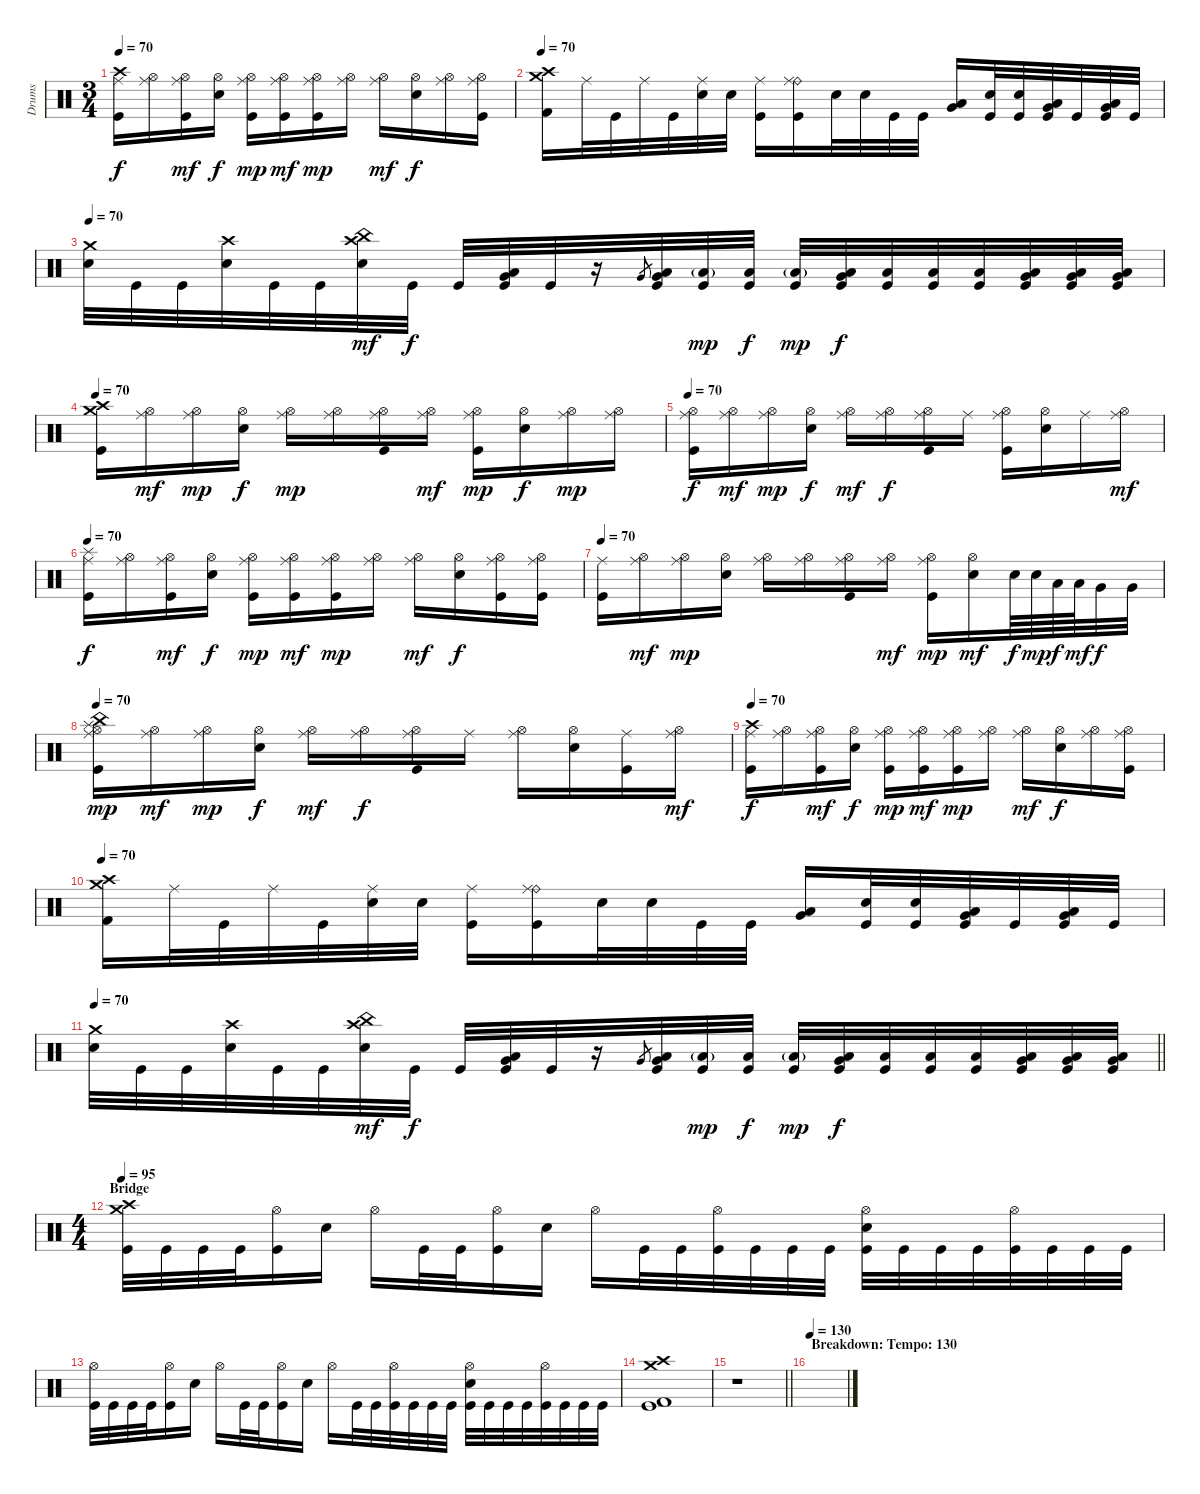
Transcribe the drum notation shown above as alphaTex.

\track ("Drums" "Drums") {instrument percussion}
\staff {score}
\articulation defaults
\ts (3 4)
\tempo 70
\clef neutral
\ks c
("Crash high (hit)" "Ride (middle)" "Kick (hit)").16{dy f} ("Ride (middle)" "Hi-Hat (open)").16 ("Ride (middle)" "Hi-Hat (open)" "Kick (hit)").16{dy mf} ("Hi-Hat (open)" "Electric Snare (hit)").16{dy f} ("Ride (middle)" "Hi-Hat (open)" "Kick (hit)").16{dy mp} ("Ride (middle)" "Hi-Hat (open)" "Kick (hit)").16{dy mf} ("Ride (middle)" "Hi-Hat (open)" "Kick (hit)").16{dy mp} ("Ride (middle)" "Hi-Hat (open)").16 ("Ride (middle)" "Hi-Hat (open)").16{dy mf} ("Hi-Hat (open)" "Electric Snare (hit)").16{dy f} ("Ride (middle)" "Hi-Hat (open)").16 ("Ride (middle)" "Hi-Hat (open)" "Kick (hit)").16 |
\tempo 70
("Crash medium (hit)" "Crash high (hit)" "Kick (hit) 2").16 "Ride (middle)".32 "Kick (hit)".32 "Ride (middle)".32 "Kick (hit)".32 ("Ride (middle)" "Electric Snare (hit)").32 "Electric Snare (hit)".32 ("Ride (middle)" "Kick (hit)").16 ("Ride (bell)" "Ride (middle)" "Kick (hit)").16 "Electric Snare (hit)".32 "Electric Snare (hit)".32 "Kick (hit)".32 "Kick (hit)".32 ("Very Low Tom (hit)" "Low Floor Tom (hit)").16 ("Electric Snare (hit)" "Kick (hit)").32 ("Electric Snare (hit)" "Kick (hit)").32 ("Very Low Tom (hit)" "Low Floor Tom (hit)" "Kick (hit)").32 "Kick (hit)".32 ("Very Low Tom (hit)" "Low Floor Tom (hit)" "Kick (hit)").32 "Kick (hit)".32 |
\tempo 70
("Crash medium (hit)" "Electric Snare (hit)").32 "Kick (hit)".32 "Kick (hit)".32 ("Crash high (hit)" "Electric Snare (hit)").32 "Kick (hit)".32 "Kick (hit)".32 ("Crash high (hit)" "China (hit)" "Electric Snare (hit)").32{dy mf} "Kick (hit)".32{dy f} "Kick (hit)".32 ("Very Low Tom (hit)" "Low Floor Tom (hit)" "Kick (hit)").32 "Kick (hit)".32 r.16 "Very Low Tom (hit)".8{gr} ("Very Low Tom (hit)" "Low Floor Tom (hit)" "Kick (hit)").32 ("Low Floor Tom (hit)"{g} "Kick (hit)").32{dy mp} ("Low Floor Tom (hit)" "Kick (hit)").32{dy f} ("Low Floor Tom (hit)"{g} "Kick (hit)").32{dy mp} ("Very Low Tom (hit)" "Low Floor Tom (hit)" "Kick (hit)").32{dy f} ("Low Floor Tom (hit)" "Kick (hit)").32 ("Low Floor Tom (hit)" "Kick (hit)").32 ("Low Floor Tom (hit)" "Kick (hit)").32 ("Very Low Tom (hit)" "Low Floor Tom (hit)" "Kick (hit)").32 ("Very Low Tom (hit)" "Low Floor Tom (hit)" "Kick (hit)").32 ("Very Low Tom (hit)" "Low Floor Tom (hit)" "Kick (hit)").32 |
\tempo 70
("Crash medium (hit)" "Crash high (hit)" "Kick (hit)").16 ("Ride (middle)" "Hi-Hat (open)").16{dy mf} ("Ride (middle)" "Hi-Hat (open)").16{dy mp} ("Hi-Hat (open)" "Electric Snare (hit)").16{dy f} ("Ride (middle)" "Hi-Hat (open)").16{dy mp} ("Ride (middle)" "Hi-Hat (open)").16 ("Ride (middle)" "Hi-Hat (open)" "Kick (hit)").16 ("Ride (middle)" "Hi-Hat (open)").16{dy mf} ("Ride (middle)" "Hi-Hat (open)" "Kick (hit)").16{dy mp} ("Hi-Hat (open)" "Electric Snare (hit)").16{dy f} ("Ride (middle)" "Hi-Hat (open)").16{dy mp} ("Ride (middle)" "Hi-Hat (open)").16 |
\tempo 70
("Ride (middle)" "Hi-Hat (open)" "Kick (hit)").16{dy f} ("Ride (middle)" "Hi-Hat (open)").16{dy mf} ("Ride (middle)" "Hi-Hat (open)").16{dy mp} ("Hi-Hat (open)" "Electric Snare (hit)").16{dy f} ("Ride (middle)" "Hi-Hat (open)").16{dy mf} ("Ride (middle)" "Hi-Hat (open)").16{dy f} ("Ride (middle)" "Hi-Hat (open)" "Kick (hit)").16 "Ride (middle)".16 ("Ride (middle)" "Hi-Hat (open)" "Kick (hit)").16 ("Hi-Hat (open)" "Electric Snare (hit)").16 "Ride (middle)".16 ("Ride (middle)" "Hi-Hat (open)").16{dy mf} |
\tempo 70
("Splash (hit)" "Ride (middle)" "Kick (hit)").16{dy f} ("Ride (middle)" "Hi-Hat (open)").16 ("Ride (middle)" "Hi-Hat (open)" "Kick (hit)").16{dy mf} ("Hi-Hat (open)" "Electric Snare (hit)").16{dy f} ("Ride (middle)" "Hi-Hat (open)" "Kick (hit)").16{dy mp} ("Ride (middle)" "Hi-Hat (open)" "Kick (hit)").16{dy mf} ("Ride (middle)" "Hi-Hat (open)" "Kick (hit)").16{dy mp} ("Ride (middle)" "Hi-Hat (open)").16 ("Ride (middle)" "Hi-Hat (open)").16{dy mf} ("Hi-Hat (open)" "Electric Snare (hit)").16{dy f} ("Ride (middle)" "Hi-Hat (open)" "Kick (hit)").16 ("Ride (middle)" "Hi-Hat (open)" "Kick (hit)").16 |
\tempo 70
("Ride (middle)" "Kick (hit)").16 ("Ride (middle)" "Hi-Hat (open)").16{dy mf} ("Ride (middle)" "Hi-Hat (open)").16{dy mp} ("Hi-Hat (open)" "Electric Snare (hit)").16 ("Ride (middle)" "Hi-Hat (open)").16 ("Ride (middle)" "Hi-Hat (open)").16 ("Ride (middle)" "Hi-Hat (open)" "Kick (hit)").16 ("Ride (middle)" "Hi-Hat (open)").16{dy mf} ("Ride (middle)" "Hi-Hat (open)" "Kick (hit)").16{dy mp} ("Hi-Hat (open)" "Electric Snare (hit)").16{dy mf} "Electric Snare (hit)".64{dy f} "Electric Snare (hit)".64{dy mp} "Low Tom (hit)".64{dy f} "Low Tom (hit)".64{dy mf} "Very Low Tom (hit)".32{dy f} "Very Low Tom (hit)".32 |
\tempo 70
("Splash (hit)" "China (hit)" "Ride (middle)" "Hi-Hat (open)" "Kick (hit)").16{dy mp} ("Ride (middle)" "Hi-Hat (open)").16{dy mf} ("Ride (middle)" "Hi-Hat (open)").16{dy mp} ("Hi-Hat (open)" "Electric Snare (hit)").16{dy f} ("Ride (middle)" "Hi-Hat (open)").16{dy mf} ("Ride (middle)" "Hi-Hat (open)").16{dy f} ("Ride (middle)" "Hi-Hat (open)" "Kick (hit)").16 "Ride (middle)".16 ("Ride (middle)" "Hi-Hat (open)").16 ("Hi-Hat (open)" "Electric Snare (hit)").16 ("Ride (middle)" "Kick (hit)").16 ("Ride (middle)" "Hi-Hat (open)").16{dy mf} |
\tempo 70
("Crash high (hit)" "Ride (middle)" "Kick (hit)").16{dy f} ("Ride (middle)" "Hi-Hat (open)").16 ("Ride (middle)" "Hi-Hat (open)" "Kick (hit)").16{dy mf} ("Hi-Hat (open)" "Electric Snare (hit)").16{dy f} ("Ride (middle)" "Hi-Hat (open)" "Kick (hit)").16{dy mp} ("Ride (middle)" "Hi-Hat (open)" "Kick (hit)").16{dy mf} ("Ride (middle)" "Hi-Hat (open)" "Kick (hit)").16{dy mp} ("Ride (middle)" "Hi-Hat (open)").16 ("Ride (middle)" "Hi-Hat (open)").16{dy mf} ("Hi-Hat (open)" "Electric Snare (hit)").16{dy f} ("Ride (middle)" "Hi-Hat (open)").16 ("Ride (middle)" "Hi-Hat (open)" "Kick (hit)").16 |
\tempo 70
("Crash medium (hit)" "Crash high (hit)" "Kick (hit) 2").16 "Ride (middle)".32 "Kick (hit)".32 "Ride (middle)".32 "Kick (hit)".32 ("Ride (middle)" "Electric Snare (hit)").32 "Electric Snare (hit)".32 ("Ride (middle)" "Kick (hit)").16 ("Ride (bell)" "Ride (middle)" "Kick (hit)").16 "Electric Snare (hit)".32 "Electric Snare (hit)".32 "Kick (hit)".32 "Kick (hit)".32 ("Very Low Tom (hit)" "Low Floor Tom (hit)").16 ("Electric Snare (hit)" "Kick (hit)").32 ("Electric Snare (hit)" "Kick (hit)").32 ("Very Low Tom (hit)" "Low Floor Tom (hit)" "Kick (hit)").32 "Kick (hit)".32 ("Very Low Tom (hit)" "Low Floor Tom (hit)" "Kick (hit)").32 "Kick (hit)".32 |
\tempo 70
\barLineRight lightlight
("Crash medium (hit)" "Electric Snare (hit)").32 "Kick (hit)".32 "Kick (hit)".32 ("Crash high (hit)" "Electric Snare (hit)").32 "Kick (hit)".32 "Kick (hit)".32 ("Crash high (hit)" "China (hit)" "Electric Snare (hit)").32{dy mf} "Kick (hit)".32{dy f} "Kick (hit)".32 ("Very Low Tom (hit)" "Low Floor Tom (hit)" "Kick (hit)").32 "Kick (hit)".32 r.16 "Very Low Tom (hit)".8{gr} ("Very Low Tom (hit)" "Low Floor Tom (hit)" "Kick (hit)").32 ("Low Floor Tom (hit)"{g} "Kick (hit)").32{dy mp} ("Low Floor Tom (hit)" "Kick (hit)").32{dy f} ("Low Floor Tom (hit)"{g} "Kick (hit)").32{dy mp} ("Very Low Tom (hit)" "Low Floor Tom (hit)" "Kick (hit)").32{dy f} ("Low Floor Tom (hit)" "Kick (hit)").32 ("Low Floor Tom (hit)" "Kick (hit)").32 ("Low Floor Tom (hit)" "Kick (hit)").32 ("Very Low Tom (hit)" "Low Floor Tom (hit)" "Kick (hit)").32 ("Very Low Tom (hit)" "Low Floor Tom (hit)" "Kick (hit)").32 ("Very Low Tom (hit)" "Low Floor Tom (hit)" "Kick (hit)").32 |
\ts (4 4)
\section ("" "Bridge")
\tempo 95
("Crash medium (hit)" "Crash high (hit)" "Kick (hit)").32 "Kick (hit)".32 "Kick (hit)".32 "Kick (hit)".32 ("Hi-Hat (open)" "Kick (hit)").16 "Electric Snare (hit)".16 "Hi-Hat (open)".16 "Kick (hit)".32 "Kick (hit)".32 ("Hi-Hat (open)" "Kick (hit)").16 "Electric Snare (hit)".16 "Hi-Hat (open)".16 "Kick (hit)".32 "Kick (hit)".32 ("Hi-Hat (open)" "Kick (hit)").32 "Kick (hit)".32 "Kick (hit)".32 "Kick (hit)".32 ("Hi-Hat (open)" "Electric Snare (hit)" "Kick (hit)").32 "Kick (hit)".32 "Kick (hit)".32 "Kick (hit)".32 ("Hi-Hat (open)" "Kick (hit)").32 "Kick (hit)".32 "Kick (hit)".32 "Kick (hit)".32 |
("Hi-Hat (open)" "Kick (hit)").32 "Kick (hit)".32 "Kick (hit)".32 "Kick (hit)".32 ("Hi-Hat (open)" "Kick (hit)").16 "Electric Snare (hit)".16 "Hi-Hat (open)".16 "Kick (hit)".32 "Kick (hit)".32 ("Hi-Hat (open)" "Kick (hit)").16 "Electric Snare (hit)".16 "Hi-Hat (open)".16 "Kick (hit)".32 "Kick (hit)".32 ("Hi-Hat (open)" "Kick (hit)").32 "Kick (hit)".32 "Kick (hit)".32 "Kick (hit)".32 ("Hi-Hat (open)" "Electric Snare (hit)" "Kick (hit)").32 "Kick (hit)".32 "Kick (hit)".32 "Kick (hit)".32 ("Hi-Hat (open)" "Kick (hit)").32 "Kick (hit)".32 "Kick (hit)".32 "Kick (hit)".32 |
("Crash medium (hit)" "Crash high (hit)" "Kick (hit) 2" "Kick (hit)").1 |
\barLineRight lightlight
r.1 |
\section ("" "Breakdown: Tempo: 130")
\tempo 130
